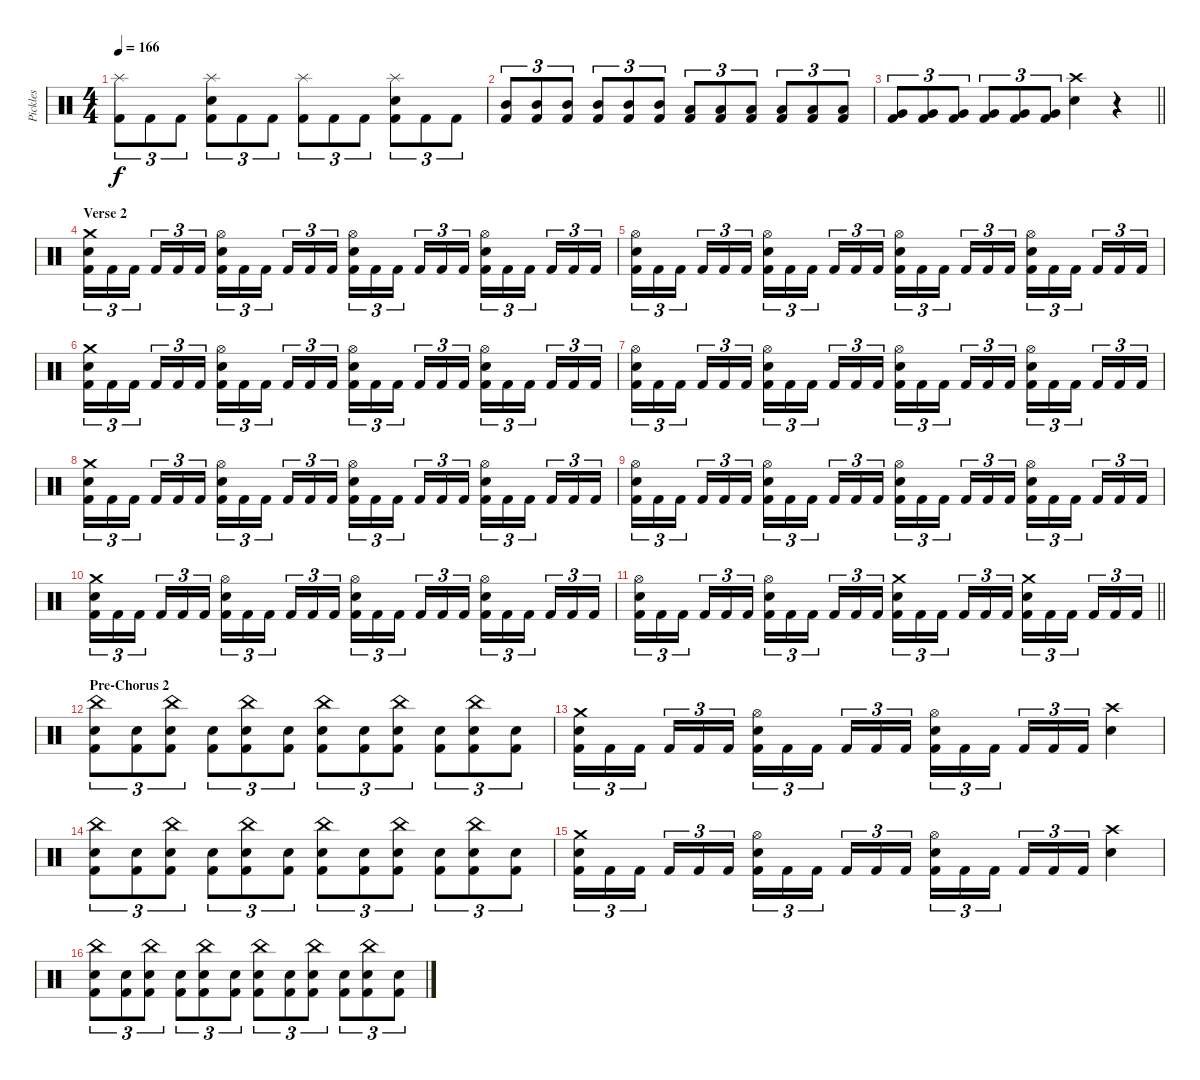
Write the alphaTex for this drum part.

\track ("Pickles" "Pickles") {instrument percussion}
\staff {score}
\articulation defaults
\ts (4 4)
\tempo 166
\clef neutral
\ks c
("Splash (hit)" "Kick (hit) 2").8{tu (3 2) dy f} "Kick (hit) 2".8{tu (3 2)} "Kick (hit) 2".8{tu (3 2)} ("Splash (hit)" "Snare (hit) 2" "Kick (hit) 2").8{tu (3 2)} "Kick (hit) 2".8{tu (3 2)} "Kick (hit) 2".8{tu (3 2)} ("Splash (hit)" "Kick (hit) 2").8{tu (3 2)} "Kick (hit) 2".8{tu (3 2)} "Kick (hit) 2".8{tu (3 2)} ("Splash (hit)" "Snare (hit) 2" "Kick (hit) 2").8{tu (3 2)} "Kick (hit) 2".8{tu (3 2)} "Kick (hit) 2".8{tu (3 2)} |
("Mid Tom (hit)" "Kick (hit) 2").8{tu (3 2)} ("Mid Tom (hit)" "Kick (hit) 2").8{tu (3 2)} ("Mid Tom (hit)" "Kick (hit) 2").8{tu (3 2)} ("Mid Tom (hit)" "Kick (hit) 2").8{tu (3 2)} ("Mid Tom (hit)" "Kick (hit) 2").8{tu (3 2)} ("Mid Tom (hit)" "Kick (hit) 2").8{tu (3 2)} ("Low Tom (hit)" "Kick (hit) 2").8{tu (3 2)} ("Low Tom (hit)" "Kick (hit) 2").8{tu (3 2)} ("Low Tom (hit)" "Kick (hit) 2").8{tu (3 2)} ("Low Tom (hit)" "Kick (hit) 2").8{tu (3 2)} ("Low Tom (hit)" "Kick (hit) 2").8{tu (3 2)} ("Low Tom (hit)" "Kick (hit) 2").8{tu (3 2)} |
\barLineRight lightlight
("Very Low Tom (hit)" "Kick (hit) 2").8{tu (3 2)} ("Very Low Tom (hit)" "Kick (hit) 2").8{tu (3 2)} ("Very Low Tom (hit)" "Kick (hit) 2").8{tu (3 2)} ("Very Low Tom (hit)" "Kick (hit) 2").8{tu (3 2)} ("Very Low Tom (hit)" "Kick (hit) 2").8{tu (3 2)} ("Very Low Tom (hit)" "Kick (hit) 2").8{tu (3 2)} ("Crash high (hit)" "Snare (hit) 2").4 r.4 |
\section ("" "Verse 2")
("Crash medium (hit)" "Snare (hit) 2" "Kick (hit) 2").16{tu (3 2)} "Kick (hit) 2".16{tu (3 2)} "Kick (hit) 2".16{tu (3 2) beam splitsecondary} "Kick (hit) 2".16{tu (3 2)} "Kick (hit) 2".16{tu (3 2)} "Kick (hit) 2".16{tu (3 2)} ("Hi-Hat (open)" "Snare (hit) 2" "Kick (hit) 2").16{tu (3 2)} "Kick (hit) 2".16{tu (3 2)} "Kick (hit) 2".16{tu (3 2) beam splitsecondary} "Kick (hit) 2".16{tu (3 2)} "Kick (hit) 2".16{tu (3 2)} "Kick (hit) 2".16{tu (3 2)} ("Hi-Hat (open)" "Snare (hit) 2" "Kick (hit) 2").16{tu (3 2)} "Kick (hit) 2".16{tu (3 2)} "Kick (hit) 2".16{tu (3 2) beam splitsecondary} "Kick (hit) 2".16{tu (3 2)} "Kick (hit) 2".16{tu (3 2)} "Kick (hit) 2".16{tu (3 2)} ("Hi-Hat (open)" "Snare (hit) 2" "Kick (hit) 2").16{tu (3 2)} "Kick (hit) 2".16{tu (3 2)} "Kick (hit) 2".16{tu (3 2) beam splitsecondary} "Kick (hit) 2".16{tu (3 2)} "Kick (hit) 2".16{tu (3 2)} "Kick (hit) 2".16{tu (3 2)} |
("Hi-Hat (open)" "Snare (hit) 2" "Kick (hit) 2").16{tu (3 2)} "Kick (hit) 2".16{tu (3 2)} "Kick (hit) 2".16{tu (3 2) beam splitsecondary} "Kick (hit) 2".16{tu (3 2)} "Kick (hit) 2".16{tu (3 2)} "Kick (hit) 2".16{tu (3 2)} ("Hi-Hat (open)" "Snare (hit) 2" "Kick (hit) 2").16{tu (3 2)} "Kick (hit) 2".16{tu (3 2)} "Kick (hit) 2".16{tu (3 2) beam splitsecondary} "Kick (hit) 2".16{tu (3 2)} "Kick (hit) 2".16{tu (3 2)} "Kick (hit) 2".16{tu (3 2)} ("Hi-Hat (open)" "Snare (hit) 2" "Kick (hit) 2").16{tu (3 2)} "Kick (hit) 2".16{tu (3 2)} "Kick (hit) 2".16{tu (3 2) beam splitsecondary} "Kick (hit) 2".16{tu (3 2)} "Kick (hit) 2".16{tu (3 2)} "Kick (hit) 2".16{tu (3 2)} ("Hi-Hat (open)" "Snare (hit) 2" "Kick (hit) 2").16{tu (3 2)} "Kick (hit) 2".16{tu (3 2)} "Kick (hit) 2".16{tu (3 2) beam splitsecondary} "Kick (hit) 2".16{tu (3 2)} "Kick (hit) 2".16{tu (3 2)} "Kick (hit) 2".16{tu (3 2)} |
("Crash medium (hit)" "Snare (hit) 2" "Kick (hit) 2").16{tu (3 2)} "Kick (hit) 2".16{tu (3 2)} "Kick (hit) 2".16{tu (3 2) beam splitsecondary} "Kick (hit) 2".16{tu (3 2)} "Kick (hit) 2".16{tu (3 2)} "Kick (hit) 2".16{tu (3 2)} ("Hi-Hat (open)" "Snare (hit) 2" "Kick (hit) 2").16{tu (3 2)} "Kick (hit) 2".16{tu (3 2)} "Kick (hit) 2".16{tu (3 2) beam splitsecondary} "Kick (hit) 2".16{tu (3 2)} "Kick (hit) 2".16{tu (3 2)} "Kick (hit) 2".16{tu (3 2)} ("Hi-Hat (open)" "Snare (hit) 2" "Kick (hit) 2").16{tu (3 2)} "Kick (hit) 2".16{tu (3 2)} "Kick (hit) 2".16{tu (3 2) beam splitsecondary} "Kick (hit) 2".16{tu (3 2)} "Kick (hit) 2".16{tu (3 2)} "Kick (hit) 2".16{tu (3 2)} ("Hi-Hat (open)" "Snare (hit) 2" "Kick (hit) 2").16{tu (3 2)} "Kick (hit) 2".16{tu (3 2)} "Kick (hit) 2".16{tu (3 2) beam splitsecondary} "Kick (hit) 2".16{tu (3 2)} "Kick (hit) 2".16{tu (3 2)} "Kick (hit) 2".16{tu (3 2)} |
("Hi-Hat (open)" "Snare (hit) 2" "Kick (hit) 2").16{tu (3 2)} "Kick (hit) 2".16{tu (3 2)} "Kick (hit) 2".16{tu (3 2) beam splitsecondary} "Kick (hit) 2".16{tu (3 2)} "Kick (hit) 2".16{tu (3 2)} "Kick (hit) 2".16{tu (3 2)} ("Hi-Hat (open)" "Snare (hit) 2" "Kick (hit) 2").16{tu (3 2)} "Kick (hit) 2".16{tu (3 2)} "Kick (hit) 2".16{tu (3 2) beam splitsecondary} "Kick (hit) 2".16{tu (3 2)} "Kick (hit) 2".16{tu (3 2)} "Kick (hit) 2".16{tu (3 2)} ("Hi-Hat (open)" "Snare (hit) 2" "Kick (hit) 2").16{tu (3 2)} "Kick (hit) 2".16{tu (3 2)} "Kick (hit) 2".16{tu (3 2) beam splitsecondary} "Kick (hit) 2".16{tu (3 2)} "Kick (hit) 2".16{tu (3 2)} "Kick (hit) 2".16{tu (3 2)} ("Hi-Hat (open)" "Snare (hit) 2" "Kick (hit) 2").16{tu (3 2)} "Kick (hit) 2".16{tu (3 2)} "Kick (hit) 2".16{tu (3 2) beam splitsecondary} "Kick (hit) 2".16{tu (3 2)} "Kick (hit) 2".16{tu (3 2)} "Kick (hit) 2".16{tu (3 2)} |
("Crash medium (hit)" "Snare (hit) 2" "Kick (hit) 2").16{tu (3 2)} "Kick (hit) 2".16{tu (3 2)} "Kick (hit) 2".16{tu (3 2) beam splitsecondary} "Kick (hit) 2".16{tu (3 2)} "Kick (hit) 2".16{tu (3 2)} "Kick (hit) 2".16{tu (3 2)} ("Hi-Hat (open)" "Snare (hit) 2" "Kick (hit) 2").16{tu (3 2)} "Kick (hit) 2".16{tu (3 2)} "Kick (hit) 2".16{tu (3 2) beam splitsecondary} "Kick (hit) 2".16{tu (3 2)} "Kick (hit) 2".16{tu (3 2)} "Kick (hit) 2".16{tu (3 2)} ("Hi-Hat (open)" "Snare (hit) 2" "Kick (hit) 2").16{tu (3 2)} "Kick (hit) 2".16{tu (3 2)} "Kick (hit) 2".16{tu (3 2) beam splitsecondary} "Kick (hit) 2".16{tu (3 2)} "Kick (hit) 2".16{tu (3 2)} "Kick (hit) 2".16{tu (3 2)} ("Hi-Hat (open)" "Snare (hit) 2" "Kick (hit) 2").16{tu (3 2)} "Kick (hit) 2".16{tu (3 2)} "Kick (hit) 2".16{tu (3 2) beam splitsecondary} "Kick (hit) 2".16{tu (3 2)} "Kick (hit) 2".16{tu (3 2)} "Kick (hit) 2".16{tu (3 2)} |
("Hi-Hat (open)" "Snare (hit) 2" "Kick (hit) 2").16{tu (3 2)} "Kick (hit) 2".16{tu (3 2)} "Kick (hit) 2".16{tu (3 2) beam splitsecondary} "Kick (hit) 2".16{tu (3 2)} "Kick (hit) 2".16{tu (3 2)} "Kick (hit) 2".16{tu (3 2)} ("Hi-Hat (open)" "Snare (hit) 2" "Kick (hit) 2").16{tu (3 2)} "Kick (hit) 2".16{tu (3 2)} "Kick (hit) 2".16{tu (3 2) beam splitsecondary} "Kick (hit) 2".16{tu (3 2)} "Kick (hit) 2".16{tu (3 2)} "Kick (hit) 2".16{tu (3 2)} ("Hi-Hat (open)" "Snare (hit) 2" "Kick (hit) 2").16{tu (3 2)} "Kick (hit) 2".16{tu (3 2)} "Kick (hit) 2".16{tu (3 2) beam splitsecondary} "Kick (hit) 2".16{tu (3 2)} "Kick (hit) 2".16{tu (3 2)} "Kick (hit) 2".16{tu (3 2)} ("Hi-Hat (open)" "Snare (hit) 2" "Kick (hit) 2").16{tu (3 2)} "Kick (hit) 2".16{tu (3 2)} "Kick (hit) 2".16{tu (3 2) beam splitsecondary} "Kick (hit) 2".16{tu (3 2)} "Kick (hit) 2".16{tu (3 2)} "Kick (hit) 2".16{tu (3 2)} |
("Crash medium (hit)" "Snare (hit) 2" "Kick (hit) 2").16{tu (3 2)} "Kick (hit) 2".16{tu (3 2)} "Kick (hit) 2".16{tu (3 2) beam splitsecondary} "Kick (hit) 2".16{tu (3 2)} "Kick (hit) 2".16{tu (3 2)} "Kick (hit) 2".16{tu (3 2)} ("Hi-Hat (open)" "Snare (hit) 2" "Kick (hit) 2").16{tu (3 2)} "Kick (hit) 2".16{tu (3 2)} "Kick (hit) 2".16{tu (3 2) beam splitsecondary} "Kick (hit) 2".16{tu (3 2)} "Kick (hit) 2".16{tu (3 2)} "Kick (hit) 2".16{tu (3 2)} ("Hi-Hat (open)" "Snare (hit) 2" "Kick (hit) 2").16{tu (3 2)} "Kick (hit) 2".16{tu (3 2)} "Kick (hit) 2".16{tu (3 2) beam splitsecondary} "Kick (hit) 2".16{tu (3 2)} "Kick (hit) 2".16{tu (3 2)} "Kick (hit) 2".16{tu (3 2)} ("Hi-Hat (open)" "Snare (hit) 2" "Kick (hit) 2").16{tu (3 2)} "Kick (hit) 2".16{tu (3 2)} "Kick (hit) 2".16{tu (3 2) beam splitsecondary} "Kick (hit) 2".16{tu (3 2)} "Kick (hit) 2".16{tu (3 2)} "Kick (hit) 2".16{tu (3 2)} |
\barLineRight lightlight
("Hi-Hat (open)" "Snare (hit) 2" "Kick (hit) 2").16{tu (3 2)} "Kick (hit) 2".16{tu (3 2)} "Kick (hit) 2".16{tu (3 2) beam splitsecondary} "Kick (hit) 2".16{tu (3 2)} "Kick (hit) 2".16{tu (3 2)} "Kick (hit) 2".16{tu (3 2)} ("Hi-Hat (open)" "Snare (hit) 2" "Kick (hit) 2").16{tu (3 2)} "Kick (hit) 2".16{tu (3 2)} "Kick (hit) 2".16{tu (3 2) beam splitsecondary} "Kick (hit) 2".16{tu (3 2)} "Kick (hit) 2".16{tu (3 2)} "Kick (hit) 2".16{tu (3 2)} ("Crash medium (hit)" "Snare (hit) 2" "Kick (hit) 2").16{tu (3 2)} "Kick (hit) 2".16{tu (3 2)} "Kick (hit) 2".16{tu (3 2) beam splitsecondary} "Kick (hit) 2".16{tu (3 2)} "Kick (hit) 2".16{tu (3 2)} "Kick (hit) 2".16{tu (3 2)} ("Crash medium (hit)" "Snare (hit) 2" "Kick (hit) 2").16{tu (3 2)} "Kick (hit) 2".16{tu (3 2)} "Kick (hit) 2".16{tu (3 2) beam splitsecondary} "Kick (hit) 2".16{tu (3 2)} "Kick (hit) 2".16{tu (3 2)} "Kick (hit) 2".16{tu (3 2)} |
\section ("" "Pre-Chorus 2")
("China (hit)" "Snare (hit) 2" "Kick (hit) 2").8{tu (3 2)} ("Snare (hit) 2" "Kick (hit) 2").8{tu (3 2)} ("China (hit)" "Snare (hit) 2" "Kick (hit) 2").8{tu (3 2)} ("Snare (hit) 2" "Kick (hit) 2").8{tu (3 2)} ("China (hit)" "Snare (hit) 2" "Kick (hit) 2").8{tu (3 2)} ("Snare (hit) 2" "Kick (hit) 2").8{tu (3 2)} ("China (hit)" "Snare (hit) 2" "Kick (hit) 2").8{tu (3 2)} ("Snare (hit) 2" "Kick (hit) 2").8{tu (3 2)} ("China (hit)" "Snare (hit) 2" "Kick (hit) 2").8{tu (3 2)} ("Snare (hit) 2" "Kick (hit) 2").8{tu (3 2)} ("China (hit)" "Snare (hit) 2" "Kick (hit) 2").8{tu (3 2)} ("Snare (hit) 2" "Kick (hit) 2").8{tu (3 2)} |
("Crash medium (hit)" "Snare (hit) 2" "Kick (hit) 2").16{tu (3 2)} "Kick (hit) 2".16{tu (3 2)} "Kick (hit) 2".16{tu (3 2) beam splitsecondary} "Kick (hit) 2".16{tu (3 2)} "Kick (hit) 2".16{tu (3 2)} "Kick (hit) 2".16{tu (3 2)} ("Hi-Hat (open)" "Snare (hit) 2" "Kick (hit) 2").16{tu (3 2)} "Kick (hit) 2".16{tu (3 2)} "Kick (hit) 2".16{tu (3 2) beam splitsecondary} "Kick (hit) 2".16{tu (3 2)} "Kick (hit) 2".16{tu (3 2)} "Kick (hit) 2".16{tu (3 2)} ("Hi-Hat (open)" "Snare (hit) 2" "Kick (hit) 2").16{tu (3 2)} "Kick (hit) 2".16{tu (3 2)} "Kick (hit) 2".16{tu (3 2) beam splitsecondary} "Kick (hit) 2".16{tu (3 2)} "Kick (hit) 2".16{tu (3 2)} "Kick (hit) 2".16{tu (3 2)} ("Crash high (hit)" "Snare (hit) 2").4 |
("China (hit)" "Snare (hit) 2" "Kick (hit) 2").8{tu (3 2)} ("Snare (hit) 2" "Kick (hit) 2").8{tu (3 2)} ("China (hit)" "Snare (hit) 2" "Kick (hit) 2").8{tu (3 2)} ("Snare (hit) 2" "Kick (hit) 2").8{tu (3 2)} ("China (hit)" "Snare (hit) 2" "Kick (hit) 2").8{tu (3 2)} ("Snare (hit) 2" "Kick (hit) 2").8{tu (3 2)} ("China (hit)" "Snare (hit) 2" "Kick (hit) 2").8{tu (3 2)} ("Snare (hit) 2" "Kick (hit) 2").8{tu (3 2)} ("China (hit)" "Snare (hit) 2" "Kick (hit) 2").8{tu (3 2)} ("Snare (hit) 2" "Kick (hit) 2").8{tu (3 2)} ("China (hit)" "Snare (hit) 2" "Kick (hit) 2").8{tu (3 2)} ("Snare (hit) 2" "Kick (hit) 2").8{tu (3 2)} |
("Crash medium (hit)" "Snare (hit) 2" "Kick (hit) 2").16{tu (3 2)} "Kick (hit) 2".16{tu (3 2)} "Kick (hit) 2".16{tu (3 2) beam splitsecondary} "Kick (hit) 2".16{tu (3 2)} "Kick (hit) 2".16{tu (3 2)} "Kick (hit) 2".16{tu (3 2)} ("Hi-Hat (open)" "Snare (hit) 2" "Kick (hit) 2").16{tu (3 2)} "Kick (hit) 2".16{tu (3 2)} "Kick (hit) 2".16{tu (3 2) beam splitsecondary} "Kick (hit) 2".16{tu (3 2)} "Kick (hit) 2".16{tu (3 2)} "Kick (hit) 2".16{tu (3 2)} ("Hi-Hat (open)" "Snare (hit) 2" "Kick (hit) 2").16{tu (3 2)} "Kick (hit) 2".16{tu (3 2)} "Kick (hit) 2".16{tu (3 2) beam splitsecondary} "Kick (hit) 2".16{tu (3 2)} "Kick (hit) 2".16{tu (3 2)} "Kick (hit) 2".16{tu (3 2)} ("Crash high (hit)" "Snare (hit) 2").4 |
("China (hit)" "Snare (hit) 2" "Kick (hit) 2").8{tu (3 2)} ("Snare (hit) 2" "Kick (hit) 2").8{tu (3 2)} ("China (hit)" "Snare (hit) 2" "Kick (hit) 2").8{tu (3 2)} ("Snare (hit) 2" "Kick (hit) 2").8{tu (3 2)} ("China (hit)" "Snare (hit) 2" "Kick (hit) 2").8{tu (3 2)} ("Snare (hit) 2" "Kick (hit) 2").8{tu (3 2)} ("China (hit)" "Snare (hit) 2" "Kick (hit) 2").8{tu (3 2)} ("Snare (hit) 2" "Kick (hit) 2").8{tu (3 2)} ("China (hit)" "Snare (hit) 2" "Kick (hit) 2").8{tu (3 2)} ("Snare (hit) 2" "Kick (hit) 2").8{tu (3 2)} ("China (hit)" "Snare (hit) 2" "Kick (hit) 2").8{tu (3 2)} ("Snare (hit) 2" "Kick (hit) 2").8{tu (3 2)}
